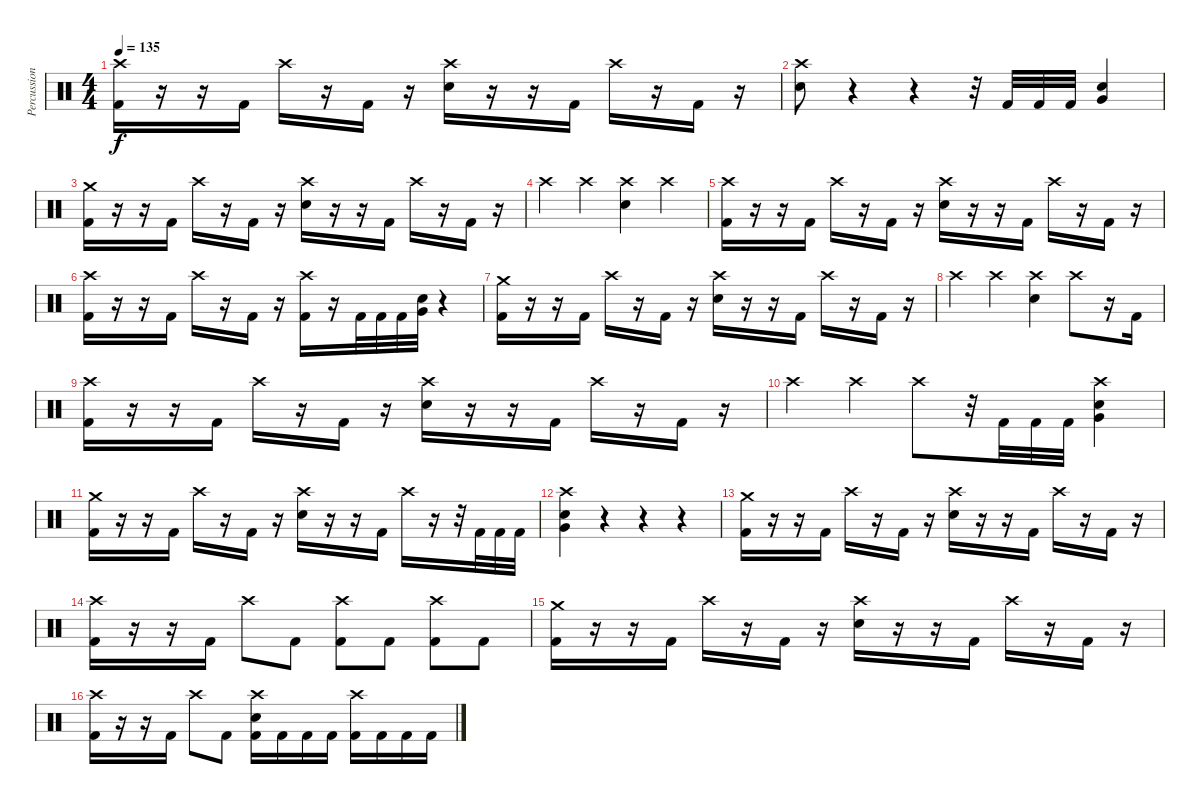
\track ("Percussions" "Percussion") {instrument percussion}
\staff {score}
\articulation defaults
\ts (4 4)
\tempo 135
\clef neutral
\ks c
("Crash high (hit)" "Kick (hit) 2").16{dy f} r.16 r.16 "Kick (hit) 2".16 "Crash high (hit)".16 r.16 "Kick (hit) 2".16 r.16 ("Crash high (hit)" "Electric Snare (hit)").16 r.16 r.16 "Kick (hit) 2".16 "Crash high (hit)".16 r.16 "Kick (hit) 2".16 r.16 |
("Crash high (hit)" "Electric Snare (hit)").8 r.4 r.4 r.32 "Kick (hit) 2".32 "Kick (hit) 2".32 "Kick (hit) 2".32 ("Very Low Tom (hit)" "Electric Snare (hit)").4 |
("Crash medium (hit)" "Kick (hit) 2").16 r.16 r.16 "Kick (hit) 2".16 "Crash high (hit)".16 r.16 "Kick (hit) 2".16 r.16 ("Crash high (hit)" "Electric Snare (hit)").16 r.16 r.16 "Kick (hit) 2".16 "Crash high (hit)".16 r.16 "Kick (hit) 2".16 r.16 |
"Crash high (hit)".4 "Crash high (hit)".4 ("Crash high (hit)" "Electric Snare (hit)").4 "Crash high (hit)".4 |
("Crash high (hit)" "Kick (hit) 2").16 r.16 r.16 "Kick (hit) 2".16 "Crash high (hit)".16 r.16 "Kick (hit) 2".16 r.16 ("Crash high (hit)" "Electric Snare (hit)").16 r.16 r.16 "Kick (hit) 2".16 "Crash high (hit)".16 r.16 "Kick (hit) 2".16 r.16 |
("Crash high (hit)" "Kick (hit) 2").16 r.16 r.16 "Kick (hit) 2".16 "Crash high (hit)".16 r.16 "Kick (hit) 2".16 r.16 ("Crash high (hit)" "Kick (hit) 2").16 r.16 "Kick (hit) 2".32 "Kick (hit) 2".32 "Kick (hit) 2".32 ("Very Low Tom (hit)" "Electric Snare (hit)").32 r.4 |
("Crash medium (hit)" "Kick (hit) 2").16 r.16 r.16 "Kick (hit) 2".16 "Crash high (hit)".16 r.16 "Kick (hit) 2".16 r.16 ("Crash high (hit)" "Electric Snare (hit)").16 r.16 r.16 "Kick (hit) 2".16 "Crash high (hit)".16 r.16 "Kick (hit) 2".16 r.16 |
"Crash high (hit)".4 "Crash high (hit)".4 ("Crash high (hit)" "Electric Snare (hit)").4 "Crash high (hit)".8 r.16 "Kick (hit) 2".16 |
("Crash high (hit)" "Kick (hit) 2").16 r.16 r.16 "Kick (hit) 2".16 "Crash high (hit)".16 r.16 "Kick (hit) 2".16 r.16 ("Crash high (hit)" "Electric Snare (hit)").16 r.16 r.16 "Kick (hit) 2".16 "Crash high (hit)".16 r.16 "Kick (hit) 2".16 r.16 |
"Crash high (hit)".4 "Crash high (hit)".4 "Crash high (hit)".8 r.32 "Kick (hit) 2".32 "Kick (hit) 2".32 "Kick (hit) 2".32 ("Crash high (hit)" "Very Low Tom (hit)" "Electric Snare (hit)").4 |
("Crash medium (hit)" "Kick (hit) 2").16 r.16 r.16 "Kick (hit) 2".16 "Crash high (hit)".16 r.16 "Kick (hit) 2".16 r.16 ("Crash high (hit)" "Electric Snare (hit)").16 r.16 r.16 "Kick (hit) 2".16 "Crash high (hit)".16 r.16 r.32 "Kick (hit) 2".32 "Kick (hit) 2".32 "Kick (hit) 2".32 |
("Crash high (hit)" "Very Low Tom (hit)" "Electric Snare (hit)").4 r.4 r.4 r.4 |
("Crash medium (hit)" "Kick (hit) 2").16 r.16 r.16 "Kick (hit) 2".16 "Crash high (hit)".16 r.16 "Kick (hit) 2".16 r.16 ("Crash high (hit)" "Electric Snare (hit)").16 r.16 r.16 "Kick (hit) 2".16 "Crash high (hit)".16 r.16 "Kick (hit) 2".16 r.16 |
("Crash high (hit)" "Kick (hit) 2").16 r.16 r.16 "Kick (hit) 2".16 "Crash high (hit)".8 "Kick (hit) 2".8 ("Crash high (hit)" "Kick (hit) 2").8 "Kick (hit) 2".8 ("Crash high (hit)" "Kick (hit) 2").8 "Kick (hit) 2".8 |
("Crash medium (hit)" "Kick (hit) 2").16 r.16 r.16 "Kick (hit) 2".16 "Crash high (hit)".16 r.16 "Kick (hit) 2".16 r.16 ("Crash high (hit)" "Electric Snare (hit)").16 r.16 r.16 "Kick (hit) 2".16 "Crash high (hit)".16 r.16 "Kick (hit) 2".16 r.16 |
("Crash high (hit)" "Kick (hit) 2").16 r.16 r.16 "Kick (hit) 2".16 "Crash high (hit)".8 "Kick (hit) 2".8 ("Crash high (hit)" "Electric Snare (hit)" "Kick (hit) 2").16 "Kick (hit) 2".16 "Kick (hit) 2".16 "Kick (hit) 2".16 ("Crash high (hit)" "Kick (hit) 2").16 "Kick (hit) 2".16 "Kick (hit) 2".16 "Kick (hit) 2".16
